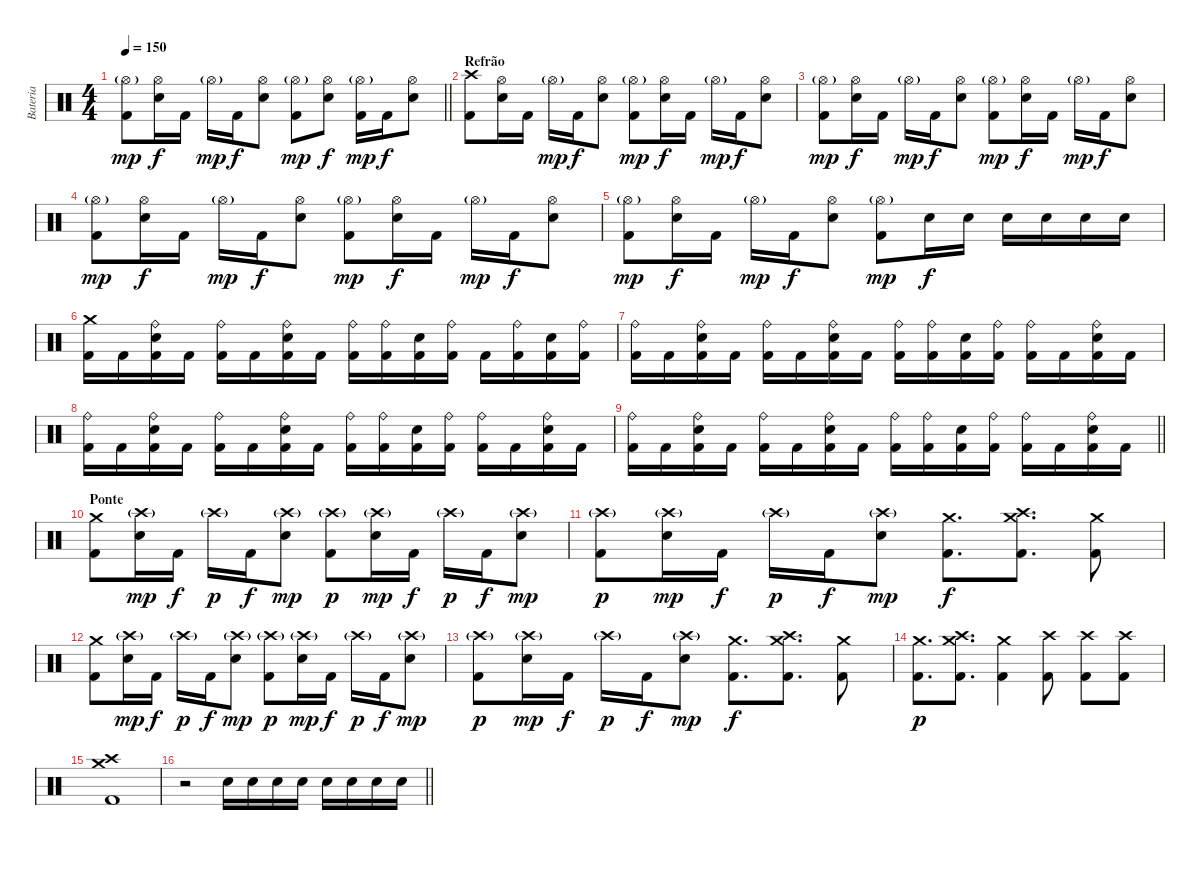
\track ("Bateria" "Bateria") {instrument percussion}
\staff {score}
\articulation defaults
\ts (4 4)
\tempo 150
\clef neutral
\barLineRight lightlight
\ks c
("Hi-Hat (open)"{g} "Kick (hit) 2").8{dy mp} ("Hi-Hat (open)" "Electric Snare (hit)").16{dy f} "Kick (hit) 2".16 "Hi-Hat (open)"{g}.16{dy mp} "Kick (hit) 2".16{dy f} ("Hi-Hat (open)" "Electric Snare (hit)").8 ("Hi-Hat (open)"{g} "Kick (hit) 2").8{dy mp} ("Hi-Hat (open)" "Electric Snare (hit)").8{dy f} ("Hi-Hat (open)"{g} "Kick (hit) 2").16{dy mp} "Kick (hit) 2".16{dy f} ("Hi-Hat (open)" "Electric Snare (hit)").8 |
\section ("" "Refrão")
("Crash high (hit)" "Kick (hit) 2").8 ("Hi-Hat (open)" "Electric Snare (hit)").16 "Kick (hit) 2".16 "Hi-Hat (open)"{g}.16{dy mp} "Kick (hit) 2".16{dy f} ("Hi-Hat (open)" "Electric Snare (hit)").8 ("Hi-Hat (open)"{g} "Kick (hit) 2").8{dy mp} ("Hi-Hat (open)" "Electric Snare (hit)").16{dy f} "Kick (hit) 2".16 "Hi-Hat (open)"{g}.16{dy mp} "Kick (hit) 2".16{dy f} ("Hi-Hat (open)" "Electric Snare (hit)").8 |
("Hi-Hat (open)"{g} "Kick (hit) 2").8{dy mp} ("Hi-Hat (open)" "Electric Snare (hit)").16{dy f} "Kick (hit) 2".16 "Hi-Hat (open)"{g}.16{dy mp} "Kick (hit) 2".16{dy f} ("Hi-Hat (open)" "Electric Snare (hit)").8 ("Hi-Hat (open)"{g} "Kick (hit) 2").8{dy mp} ("Hi-Hat (open)" "Electric Snare (hit)").16{dy f} "Kick (hit) 2".16 "Hi-Hat (open)"{g}.16{dy mp} "Kick (hit) 2".16{dy f} ("Hi-Hat (open)" "Electric Snare (hit)").8 |
("Hi-Hat (open)"{g} "Kick (hit) 2").8{dy mp} ("Hi-Hat (open)" "Electric Snare (hit)").16{dy f} "Kick (hit) 2".16 "Hi-Hat (open)"{g}.16{dy mp} "Kick (hit) 2".16{dy f} ("Hi-Hat (open)" "Electric Snare (hit)").8 ("Hi-Hat (open)"{g} "Kick (hit) 2").8{dy mp} ("Hi-Hat (open)" "Electric Snare (hit)").16{dy f} "Kick (hit) 2".16 "Hi-Hat (open)"{g}.16{dy mp} "Kick (hit) 2".16{dy f} ("Hi-Hat (open)" "Electric Snare (hit)").8 |
("Hi-Hat (open)"{g} "Kick (hit) 2").8{dy mp} ("Hi-Hat (open)" "Electric Snare (hit)").16{dy f} "Kick (hit) 2".16 "Hi-Hat (open)"{g}.16{dy mp} "Kick (hit) 2".16{dy f} ("Hi-Hat (open)" "Electric Snare (hit)").8 ("Hi-Hat (open)"{g} "Kick (hit) 2").8{dy mp} "Electric Snare (hit)".16{dy f} "Electric Snare (hit)".16 "Electric Snare (hit)".16 "Electric Snare (hit)".16 "Electric Snare (hit)".16 "Electric Snare (hit)".16 |
("Crash medium (hit)" "Kick (hit) 2").16 "Kick (hit) 2".16 ("Ride (bell)" "Electric Snare (hit)" "Kick (hit) 2").16 "Kick (hit) 2".16 ("Ride (bell)" "Kick (hit) 2").16 "Kick (hit) 2".16 ("Ride (bell)" "Electric Snare (hit)" "Kick (hit) 2").16 "Kick (hit) 2".16 ("Ride (bell)" "Kick (hit) 2").16 ("Ride (bell)" "Kick (hit) 2").16 ("Electric Snare (hit)" "Kick (hit) 2").16 ("Ride (bell)" "Kick (hit) 2").16 "Kick (hit) 2".16 ("Ride (bell)" "Kick (hit) 2").16 ("Electric Snare (hit)" "Kick (hit) 2").16 ("Ride (bell)" "Kick (hit) 2").16 |
("Ride (bell)" "Kick (hit) 2").16 "Kick (hit) 2".16 ("Ride (bell)" "Electric Snare (hit)" "Kick (hit) 2").16 "Kick (hit) 2".16 ("Ride (bell)" "Kick (hit) 2").16 "Kick (hit) 2".16 ("Ride (bell)" "Electric Snare (hit)" "Kick (hit) 2").16 "Kick (hit) 2".16 ("Ride (bell)" "Kick (hit) 2").16 ("Ride (bell)" "Kick (hit) 2").16 ("Electric Snare (hit)" "Kick (hit) 2").16 ("Ride (bell)" "Kick (hit) 2").16 ("Ride (bell)" "Kick (hit) 2").16 "Kick (hit) 2".16 ("Ride (bell)" "Electric Snare (hit)" "Kick (hit) 2").16 "Kick (hit) 2".16 |
("Ride (bell)" "Kick (hit) 2").16 "Kick (hit) 2".16 ("Ride (bell)" "Electric Snare (hit)" "Kick (hit) 2").16 "Kick (hit) 2".16 ("Ride (bell)" "Kick (hit) 2").16 "Kick (hit) 2".16 ("Ride (bell)" "Electric Snare (hit)" "Kick (hit) 2").16 "Kick (hit) 2".16 ("Ride (bell)" "Kick (hit) 2").16 ("Ride (bell)" "Kick (hit) 2").16 ("Electric Snare (hit)" "Kick (hit) 2").16 ("Ride (bell)" "Kick (hit) 2").16 ("Ride (bell)" "Kick (hit) 2").16 "Kick (hit) 2".16 ("Ride (bell)" "Electric Snare (hit)" "Kick (hit) 2").16 "Kick (hit) 2".16 |
\barLineRight lightlight
("Ride (bell)" "Kick (hit) 2").16 "Kick (hit) 2".16 ("Ride (bell)" "Electric Snare (hit)" "Kick (hit) 2").16 "Kick (hit) 2".16 ("Ride (bell)" "Kick (hit) 2").16 "Kick (hit) 2".16 ("Ride (bell)" "Electric Snare (hit)" "Kick (hit) 2").16 "Kick (hit) 2".16 ("Ride (bell)" "Kick (hit) 2").16 ("Ride (bell)" "Kick (hit) 2").16 ("Electric Snare (hit)" "Kick (hit) 2").16 ("Ride (bell)" "Kick (hit) 2").16 ("Ride (bell)" "Kick (hit) 2").16 "Kick (hit) 2".16 ("Ride (bell)" "Electric Snare (hit)" "Kick (hit) 2").16 "Kick (hit) 2".16 |
\section ("" "Ponte")
("Crash medium (hit)" "Kick (hit) 2").8 ("Crash high (hit)"{g} "Electric Snare (hit)").16{dy mp} "Kick (hit) 2".16{dy f} "Crash high (hit)"{g}.16{dy p} "Kick (hit) 2".16{dy f} ("Crash high (hit)"{g} "Electric Snare (hit)").8{dy mp} ("Crash high (hit)"{g} "Kick (hit) 2").8{dy p} ("Crash high (hit)"{g} "Electric Snare (hit)").16{dy mp} "Kick (hit) 2".16{dy f} "Crash high (hit)"{g}.16{dy p} "Kick (hit) 2".16{dy f} ("Crash high (hit)"{g} "Electric Snare (hit)").8{dy mp} |
("Crash high (hit)"{g} "Kick (hit) 2").8{dy p} ("Crash high (hit)"{g} "Electric Snare (hit)").16{dy mp} "Kick (hit) 2".16{dy f} "Crash high (hit)"{g}.16{dy p} "Kick (hit) 2".16{dy f} ("Crash high (hit)"{g} "Electric Snare (hit)").8{dy mp} ("Crash medium (hit)" "Kick (hit) 2").8{d dy f} ("Crash medium (hit)" "Crash high (hit)" "Kick (hit) 2").8{d} ("Crash medium (hit)" "Kick (hit) 2").8 |
("Crash medium (hit)" "Kick (hit) 2").8 ("Crash high (hit)"{g} "Electric Snare (hit)").16{dy mp} "Kick (hit) 2".16{dy f} "Crash high (hit)"{g}.16{dy p} "Kick (hit) 2".16{dy f} ("Crash high (hit)"{g} "Electric Snare (hit)").8{dy mp} ("Crash high (hit)"{g} "Kick (hit) 2").8{dy p} ("Crash high (hit)"{g} "Electric Snare (hit)").16{dy mp} "Kick (hit) 2".16{dy f} "Crash high (hit)"{g}.16{dy p} "Kick (hit) 2".16{dy f} ("Crash high (hit)"{g} "Electric Snare (hit)").8{dy mp} |
("Crash high (hit)"{g} "Kick (hit) 2").8{dy p} ("Crash high (hit)"{g} "Electric Snare (hit)").16{dy mp} "Kick (hit) 2".16{dy f} "Crash high (hit)"{g}.16{dy p} "Kick (hit) 2".16{dy f} ("Crash high (hit)"{g} "Electric Snare (hit)").8{dy mp} ("Crash medium (hit)" "Kick (hit) 2").8{d dy f} ("Crash medium (hit)" "Crash high (hit)" "Kick (hit) 2").8{d} ("Crash medium (hit)" "Kick (hit) 2").8 |
("Crash medium (hit)" "Kick (hit) 2").8{d dy p} ("Crash medium (hit)" "Crash high (hit)" "Kick (hit) 2").8{d} ("Crash medium (hit)" "Kick (hit) 2").4 ("Crash high (hit)" "Kick (hit) 2").8 ("Crash high (hit)" "Kick (hit) 2").8 ("Crash high (hit)" "Kick (hit) 2").8 |
("Crash high (hit)" "Crash medium (hit)" "Kick (hit) 2").1 |
\barLineRight lightlight
r.2 "Electric Snare (hit)".16 "Electric Snare (hit)".16 "Electric Snare (hit)".16 "Electric Snare (hit)".16 "Electric Snare (hit)".16 "Electric Snare (hit)".16 "Electric Snare (hit)".16 "Electric Snare (hit)".16
